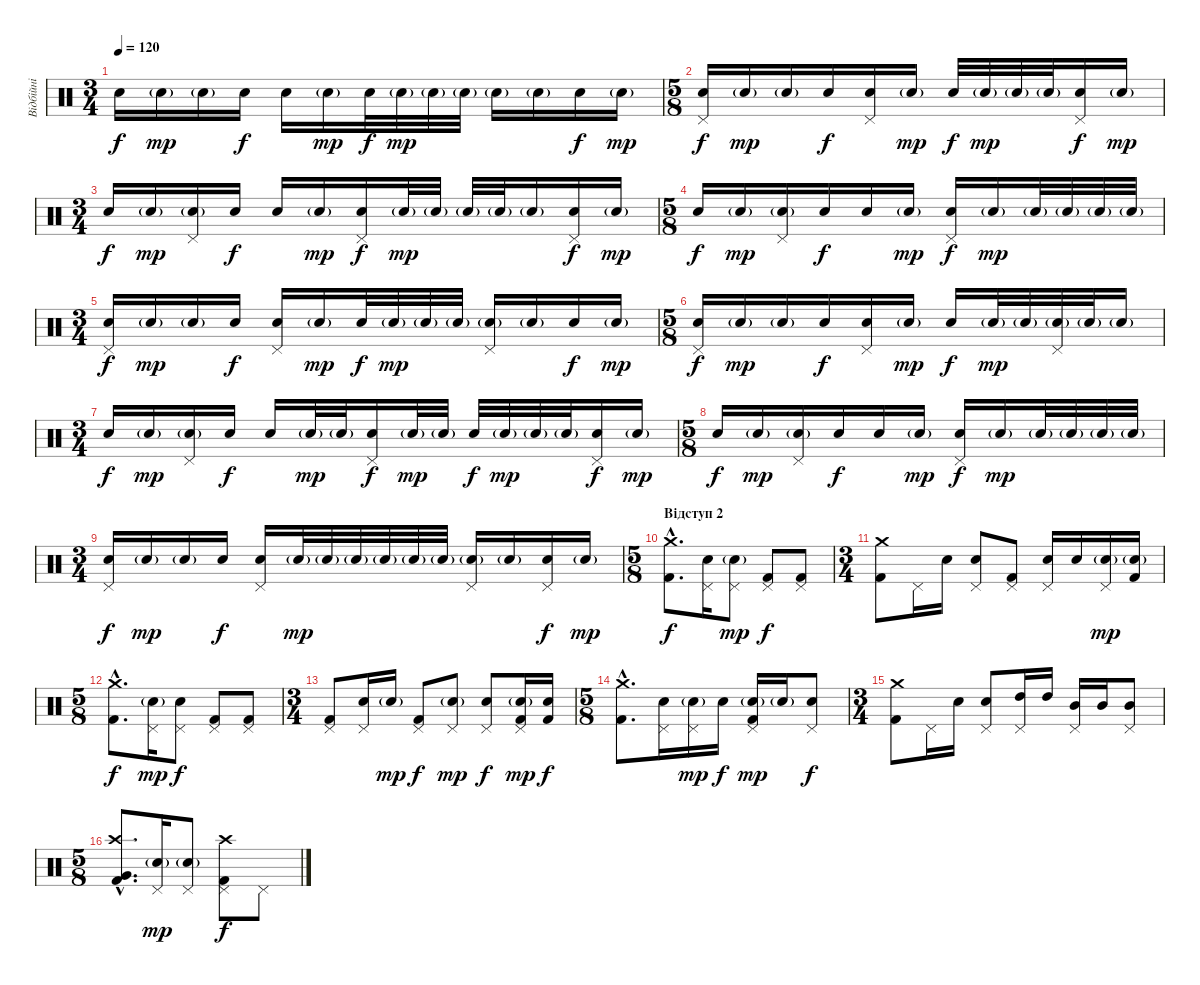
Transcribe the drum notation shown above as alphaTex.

\track ("Вiдбiйнi" "Вiдбiйнi") {instrument percussion}
\staff {score}
\articulation defaults
\ts (3 4)
\tempo 120
\clef neutral
\ks c "Electric Snare (hit)".16{dy f} "Electric Snare (hit)"{g}.16{dy mp} "Electric Snare (hit)"{g}.16 "Electric Snare (hit)".16{dy f} "Electric Snare (hit)".16 "Electric Snare (hit)"{g}.16{dy mp} "Electric Snare (hit)".32{dy f} "Electric Snare (hit)"{g}.32{dy mp} "Electric Snare (hit)"{g}.32 "Electric Snare (hit)"{g}.32 "Electric Snare (hit)"{g}.16 "Electric Snare (hit)"{g}.16 "Electric Snare (hit)".16{dy f} "Electric Snare (hit)"{g}.16{dy mp}
|
\ts (5 8)
("Pedal Hi-Hat (hit)" "Electric Snare (hit)").16{dy f volume 13} "Electric Snare (hit)"{g}.16{dy mp} "Electric Snare (hit)"{g}.16 "Electric Snare (hit)".16{dy f} ("Pedal Hi-Hat (hit)" "Electric Snare (hit)").16 "Electric Snare (hit)"{g}.16{dy mp} "Electric Snare (hit)".32{dy f} "Electric Snare (hit)"{g}.32{dy mp} "Electric Snare (hit)"{g}.32 "Electric Snare (hit)"{g}.32 ("Pedal Hi-Hat (hit)" "Electric Snare (hit)").16{dy f} "Electric Snare (hit)"{g}.16{dy mp} |
\ts (3 4)
"Electric Snare (hit)".16{dy f} "Electric Snare (hit)"{g}.16{dy mp} ("Pedal Hi-Hat (hit)" "Electric Snare (hit)"{g}).16 "Electric Snare (hit)".16{dy f} "Electric Snare (hit)".16 "Electric Snare (hit)"{g}.16{dy mp} ("Pedal Hi-Hat (hit)" "Electric Snare (hit)").16{dy f} "Electric Snare (hit)"{g}.32{dy mp} "Electric Snare (hit)"{g}.32 "Electric Snare (hit)"{g}.32 "Electric Snare (hit)"{g}.32 "Electric Snare (hit)"{g}.16 ("Pedal Hi-Hat (hit)" "Electric Snare (hit)").16{dy f} "Electric Snare (hit)"{g}.16{dy mp} |
\ts (5 8)
"Electric Snare (hit)".16{dy f} "Electric Snare (hit)"{g}.16{dy mp} ("Pedal Hi-Hat (hit)" "Electric Snare (hit)"{g}).16 "Electric Snare (hit)".16{dy f} "Electric Snare (hit)".16 "Electric Snare (hit)"{g}.16{dy mp} ("Pedal Hi-Hat (hit)" "Electric Snare (hit)").16{dy f} "Electric Snare (hit)"{g}.16{dy mp} "Electric Snare (hit)"{g}.32 "Electric Snare (hit)"{g}.32 "Electric Snare (hit)"{g}.32 "Electric Snare (hit)"{g}.32 |
\ts (3 4)
("Pedal Hi-Hat (hit)" "Electric Snare (hit)").16{dy f} "Electric Snare (hit)"{g}.16{dy mp} "Electric Snare (hit)"{g}.16 "Electric Snare (hit)".16{dy f} ("Pedal Hi-Hat (hit)" "Electric Snare (hit)").16 "Electric Snare (hit)"{g}.16{dy mp} "Electric Snare (hit)".32{dy f} "Electric Snare (hit)"{g}.32{dy mp} "Electric Snare (hit)"{g}.32 "Electric Snare (hit)"{g}.32 ("Pedal Hi-Hat (hit)" "Electric Snare (hit)"{g}).16 "Electric Snare (hit)"{g}.16 "Electric Snare (hit)".16{dy f} "Electric Snare (hit)"{g}.16{dy mp} |
\ts (5 8)
("Pedal Hi-Hat (hit)" "Electric Snare (hit)").16{dy f volume 13} "Electric Snare (hit)"{g}.16{dy mp} "Electric Snare (hit)"{g}.16 "Electric Snare (hit)".16{dy f} ("Pedal Hi-Hat (hit)" "Electric Snare (hit)").16 "Electric Snare (hit)"{g}.16{dy mp} "Electric Snare (hit)".16{dy f} "Electric Snare (hit)"{g}.32{dy mp} "Electric Snare (hit)"{g}.32 ("Pedal Hi-Hat (hit)" "Electric Snare (hit)"{g}).32 "Electric Snare (hit)"{g}.32 "Electric Snare (hit)"{g}.16 |
\ts (3 4)
"Electric Snare (hit)".16{dy f} "Electric Snare (hit)"{g}.16{dy mp} ("Pedal Hi-Hat (hit)" "Electric Snare (hit)"{g}).16 "Electric Snare (hit)".16{dy f} "Electric Snare (hit)".16 "Electric Snare (hit)"{g}.32{dy mp} "Electric Snare (hit)"{g}.32 ("Pedal Hi-Hat (hit)" "Electric Snare (hit)").16{dy f} "Electric Snare (hit)"{g}.32{dy mp} "Electric Snare (hit)"{g}.32 "Electric Snare (hit)".32{dy f} "Electric Snare (hit)"{g}.32{dy mp} "Electric Snare (hit)"{g}.32 "Electric Snare (hit)"{g}.32 ("Pedal Hi-Hat (hit)" "Electric Snare (hit)").16{dy f} "Electric Snare (hit)"{g}.16{dy mp} |
\ts (5 8)
"Electric Snare (hit)".16{dy f} "Electric Snare (hit)"{g}.16{dy mp} ("Pedal Hi-Hat (hit)" "Electric Snare (hit)"{g}).16 "Electric Snare (hit)".16{dy f} "Electric Snare (hit)".16 "Electric Snare (hit)"{g}.16{dy mp} ("Pedal Hi-Hat (hit)" "Electric Snare (hit)").16{dy f} "Electric Snare (hit)"{g}.16{dy mp} "Electric Snare (hit)"{g}.32 "Electric Snare (hit)"{g}.32 "Electric Snare (hit)"{g}.32 "Electric Snare (hit)"{g}.32 |
\ts (3 4)
("Pedal Hi-Hat (hit)" "Electric Snare (hit)").16{dy f} "Electric Snare (hit)"{g}.16{dy mp} "Electric Snare (hit)"{g}.16 "Electric Snare (hit)".16{dy f} ("Pedal Hi-Hat (hit)" "Electric Snare (hit)").16 "Electric Snare (hit)"{g}.32{dy mp} "Electric Snare (hit)"{g}.32 "Electric Snare (hit)"{g}.32 "Electric Snare (hit)"{g}.32 "Electric Snare (hit)"{g}.32 "Electric Snare (hit)"{g}.32 ("Pedal Hi-Hat (hit)" "Electric Snare (hit)"{g}).16 "Electric Snare (hit)"{g}.16 ("Pedal Hi-Hat (hit)" "Electric Snare (hit)").16{dy f} "Electric Snare (hit)"{g}.16{dy mp} |
\ts (5 8)
\section ("" "Відступ 2")
("Crash medium (hit)"{hac} "Kick (hit) 2"{hac}).8{d dy f volume 16} ("Pedal Hi-Hat (hit)" "Electric Snare (hit)").16 ("Pedal Hi-Hat (hit)" "Electric Snare (hit)"{g}).8{dy mp} ("Pedal Hi-Hat (hit)" "Kick (hit) 2").8{dy f} ("Pedal Hi-Hat (hit)" "Kick (hit) 2").8 |
\ts (3 4)
("Crash medium (hit)" "Kick (hit) 2").8 "Pedal Hi-Hat (hit)".16 "Electric Snare (hit)".16 ("Pedal Hi-Hat (hit)" "Electric Snare (hit)").8 ("Pedal Hi-Hat (hit)" "Kick (hit) 2").8 ("Pedal Hi-Hat (hit)" "Electric Snare (hit)").16 "Electric Snare (hit)".16 ("Pedal Hi-Hat (hit)" "Electric Snare (hit)"{g}).16{dy mp} ("Electric Snare (hit)"{g} "Kick (hit) 2").16 |
\ts (5 8)
("Crash medium (hit)"{hac} "Kick (hit) 2"{hac}).8{d dy f} ("Pedal Hi-Hat (hit)" "Electric Snare (hit)"{g}).16{dy mp} ("Pedal Hi-Hat (hit)" "Electric Snare (hit)").8{dy f} ("Pedal Hi-Hat (hit)" "Kick (hit) 2").8 ("Pedal Hi-Hat (hit)" "Kick (hit) 2").8 |
\ts (3 4)
("Pedal Hi-Hat (hit)" "Kick (hit) 2").8 ("Pedal Hi-Hat (hit)" "Electric Snare (hit)").16 "Electric Snare (hit)"{g}.16{dy mp} ("Pedal Hi-Hat (hit)" "Kick (hit) 2").8{dy f} ("Pedal Hi-Hat (hit)" "Electric Snare (hit)"{g}).8{dy mp} ("Pedal Hi-Hat (hit)" "Electric Snare (hit)").8{dy f} ("Pedal Hi-Hat (hit)" "Electric Snare (hit)"{g} "Kick (hit) 2").16{dy mp} ("Electric Snare (hit)" "Kick (hit) 2").16{dy f} |
\ts (5 8)
("Crash medium (hit)"{hac} "Kick (hit) 2"{hac}).8{d} ("Pedal Hi-Hat (hit)" "Electric Snare (hit)").16 ("Pedal Hi-Hat (hit)" "Electric Snare (hit)"{g}).16{dy mp} "Electric Snare (hit)".16{dy f} ("Pedal Hi-Hat (hit)" "Electric Snare (hit)"{g} "Kick (hit) 2").16{dy mp} "Electric Snare (hit)"{g}.16 ("Pedal Hi-Hat (hit)" "Electric Snare (hit)").8{dy f} |
\ts (3 4)
("Crash medium (hit)" "Kick (hit) 2").8 "Pedal Hi-Hat (hit)".16 "Electric Snare (hit)".16 ("Pedal Hi-Hat (hit)" "Electric Snare (hit)").8 ("Pedal Hi-Hat (hit)" "High Tom (hit)").16 "High Tom (hit)".16 ("Pedal Hi-Hat (hit)" "Mid Tom (hit)").16 "Mid Tom (hit)".16 ("Pedal Hi-Hat (hit)" "Mid Tom (hit)").8 |
\ts (5 8)
("Crash high (hit)"{hac} "Very Low Tom (hit)"{hac} "Kick (hit) 2"{hac}).8{d} ("Pedal Hi-Hat (hit)" "Electric Snare (hit)"{g}).16{dy mp} ("Pedal Hi-Hat (hit)" "Electric Snare (hit)"{g}).8 ("Crash high (hit)" "Pedal Hi-Hat (hit)" "Kick (hit) 2").8{dy f} "Pedal Hi-Hat (hit)".8
